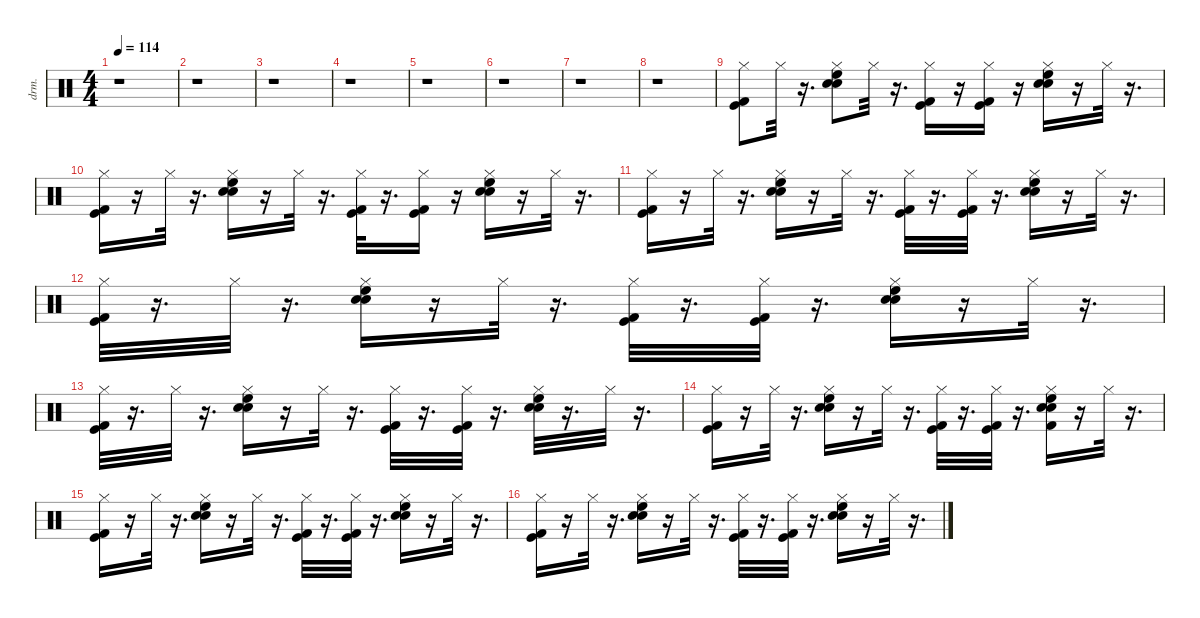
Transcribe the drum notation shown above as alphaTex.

\defaultSystemsLayout 4
\hideDynamics
\bracketExtendMode nobrackets
\otherSystemsTrackNameOrientation horizontal
\track ("Drums" "drm.") {instrument percussion}
\staff {score}
\articulation defaults
\ts (4 4)
\tempo 114
\clef neutral
\ks c
r.1{dy ff} |
r.1 |
r.1 |
r.1 |
r.1 |
r.1 |
r.1 |
r.1 |
("Hi-Hat (closed)" "Kick (hit)" "Kick (hit) 2").8 "Hi-Hat (closed)".32 r.16{d} ("Hi-Hat (closed)" "Snare (hit) 2" "High Floor Tom (hit)" "Snare (hit) 2").8 "Hi-Hat (closed)".32 r.16{d} ("Hi-Hat (closed)" "Kick (hit)" "Kick (hit) 2").16 r.16 ("Hi-Hat (closed)" "Kick (hit) 2" "Kick (hit)").16 r.16 ("High Floor Tom (hit)" "Snare (hit) 2" "Hi-Hat (closed)" "Snare (hit) 2").16{dy fff} r.16 "Hi-Hat (closed)".32{dy ff} r.16{d} |
("Kick (hit)" "Kick (hit) 2" "Hi-Hat (closed)").16{dy fff} r.16 "Hi-Hat (closed)".32{dy ff} r.16{d} ("Snare (hit) 2" "Hi-Hat (closed)" "High Floor Tom (hit)" "Snare (hit) 2").16{dy fff} r.16 "Hi-Hat (closed)".32{dy ff} r.16{d} ("Hi-Hat (closed)" "Kick (hit) 2" "Kick (hit)").32 r.16{d} ("Hi-Hat (closed)" "Kick (hit) 2" "Kick (hit)").16 r.16 ("High Floor Tom (hit)" "Snare (hit) 2" "Snare (hit) 2" "Hi-Hat (closed)").16{dy fff} r.16 "Hi-Hat (closed)".32{dy ff} r.16{d} |
("Kick (hit) 2" "Kick (hit)" "Hi-Hat (closed)").16{dy fff} r.16 "Hi-Hat (closed)".32{dy ff} r.16{d} ("Snare (hit) 2" "High Floor Tom (hit)" "Hi-Hat (closed)" "Snare (hit) 2").16{dy fff} r.16 "Hi-Hat (closed)".32{dy ff} r.16{d} ("Kick (hit) 2" "Hi-Hat (closed)" "Kick (hit)").32{dy fff} r.16{d} ("Kick (hit) 2" "Hi-Hat (closed)" "Kick (hit)").32 r.16{d} ("High Floor Tom (hit)" "Snare (hit) 2" "Snare (hit) 2" "Hi-Hat (closed)").16 r.16 "Hi-Hat (closed)".32{dy ff} r.16{d} |
("Kick (hit)" "Kick (hit) 2" "Hi-Hat (closed)").32{dy fff} r.16{d} "Hi-Hat (closed)".32{dy ff} r.16{d} ("Hi-Hat (closed)" "Snare (hit) 2" "Snare (hit) 2" "High Floor Tom (hit)").16 r.16 "Hi-Hat (closed)".32 r.16{d} ("Hi-Hat (closed)" "Kick (hit) 2" "Kick (hit)").32 r.16{d} ("Hi-Hat (closed)" "Kick (hit)" "Kick (hit) 2").32{dy f} r.16{d} ("High Floor Tom (hit)" "Snare (hit) 2" "Hi-Hat (closed)" "Snare (hit) 2").16{dy fff} r.16 "Hi-Hat (closed)".32{dy ff} r.16{d} |
("Kick (hit)" "Kick (hit) 2" "Hi-Hat (closed)").32{dy fff} r.16{d} "Hi-Hat (closed)".32{dy f} r.16{d} ("Snare (hit) 2" "High Floor Tom (hit)" "Snare (hit) 2" "Hi-Hat (closed)").16{dy fff} r.16 "Hi-Hat (closed)".32{dy ff} r.16{d} ("Kick (hit) 2" "Kick (hit)" "Hi-Hat (closed)").32{dy fff} r.16{d} ("Kick (hit) 2" "Kick (hit)" "Hi-Hat (closed)").32 r.16{d} ("High Floor Tom (hit)" "Snare (hit) 2" "Snare (hit) 2" "Hi-Hat (closed)").32 r.16{d} "Hi-Hat (closed)".32{dy ff} r.16{d} |
("Kick (hit) 2" "Kick (hit)" "Hi-Hat (closed)").16{dy fff} r.16 "Hi-Hat (closed)".32{dy ff} r.16{d} ("Snare (hit) 2" "Hi-Hat (closed)" "Snare (hit) 2" "High Floor Tom (hit)").16{dy fff} r.16 "Hi-Hat (closed)".32{dy ff} r.16{d} ("Kick (hit) 2" "Hi-Hat (closed)" "Kick (hit)").32{dy fff} r.16{d} ("Kick (hit) 2" "Hi-Hat (closed)" "Kick (hit)").32 r.16{d} ("Kick (hit) 2" "Snare (hit) 2" "Snare (hit) 2" "High Floor Tom (hit)" "Hi-Hat (closed)").16{dy f} r.16 "Hi-Hat (closed)".32{dy ff} r.16{d} |
("Kick (hit)" "Kick (hit) 2" "Hi-Hat (closed)").16{dy fff} r.16 "Hi-Hat (closed)".32{dy ff} r.16{d} ("Snare (hit) 2" "High Floor Tom (hit)" "Hi-Hat (closed)" "Snare (hit) 2").16{dy fff} r.16 "Hi-Hat (closed)".32{dy ff} r.16{d} ("Kick (hit) 2" "Kick (hit)" "Hi-Hat (closed)").32{dy fff} r.16{d} ("Kick (hit) 2" "Kick (hit)" "Hi-Hat (closed)").32 r.16{d} ("Snare (hit) 2" "Snare (hit) 2" "High Floor Tom (hit)" "Hi-Hat (closed)").16 r.16 "Hi-Hat (closed)".32{dy ff} r.16{d} |
("Hi-Hat (closed)" "Kick (hit)" "Kick (hit) 2").16 r.16 "Hi-Hat (closed)".32 r.16{d} ("Snare (hit) 2" "Snare (hit) 2" "Hi-Hat (closed)" "High Floor Tom (hit)").16{dy fff} r.16 "Hi-Hat (closed)".32{dy ff} r.16{d} ("Kick (hit) 2" "Hi-Hat (closed)" "Kick (hit)").32{dy fff} r.16{d} ("Kick (hit) 2" "Hi-Hat (closed)" "Kick (hit)").32 r.16{d} ("High Floor Tom (hit)" "Snare (hit) 2" "Snare (hit) 2" "Hi-Hat (closed)").16 r.16 "Hi-Hat (closed)".32{dy ff} r.16{d}
